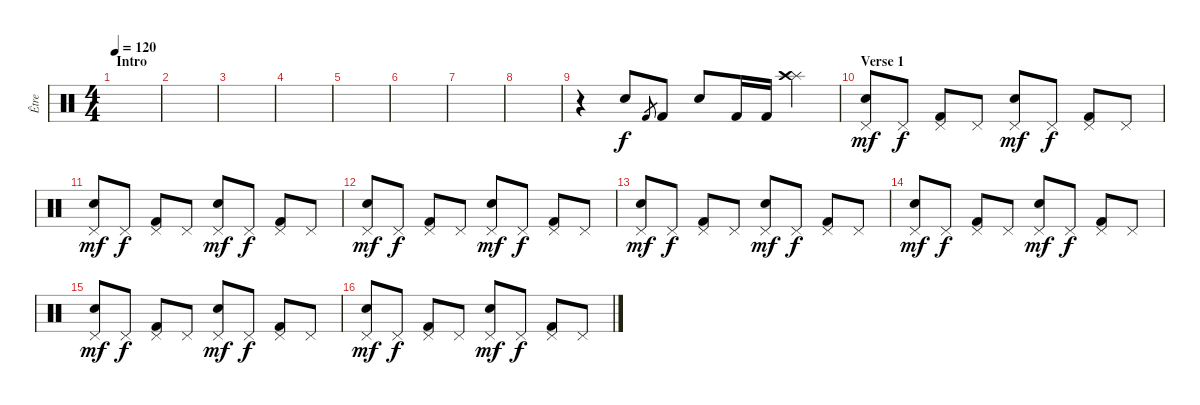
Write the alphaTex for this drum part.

\track ("Être" "Être") {instrument percussion}
\staff {score}
\articulation defaults
\ts (4 4)
\section ("" "Intro")
\tempo 120
\clef neutral
\ks c
|
|
|
|
|
|
|
|
r.4 "Electric Snare (hit)".8 "Kick (hit) 2".8{gr} "Kick (hit) 2".8 "Electric Snare (hit)".8 "Kick (hit) 2".16 "Kick (hit) 2".16 ("Splash (hit)" "Crash high (hit)").4 |
\section ("" "Verse 1")
("Pedal Hi-Hat (hit)" "Electric Snare (hit)").8{dy mf} "Pedal Hi-Hat (hit)".8{dy f} ("Kick (hit) 2" "Pedal Hi-Hat (hit)").8 "Pedal Hi-Hat (hit)".8 ("Pedal Hi-Hat (hit)" "Electric Snare (hit)").8{dy mf} "Pedal Hi-Hat (hit)".8{dy f} ("Kick (hit) 2" "Pedal Hi-Hat (hit)").8 "Pedal Hi-Hat (hit)".8 |
("Pedal Hi-Hat (hit)" "Electric Snare (hit)").8{dy mf} "Pedal Hi-Hat (hit)".8{dy f} ("Kick (hit) 2" "Pedal Hi-Hat (hit)").8 "Pedal Hi-Hat (hit)".8 ("Pedal Hi-Hat (hit)" "Electric Snare (hit)").8{dy mf} "Pedal Hi-Hat (hit)".8{dy f} ("Kick (hit) 2" "Pedal Hi-Hat (hit)").8 "Pedal Hi-Hat (hit)".8 |
("Pedal Hi-Hat (hit)" "Electric Snare (hit)").8{dy mf} "Pedal Hi-Hat (hit)".8{dy f} ("Kick (hit) 2" "Pedal Hi-Hat (hit)").8 "Pedal Hi-Hat (hit)".8 ("Pedal Hi-Hat (hit)" "Electric Snare (hit)").8{dy mf} "Pedal Hi-Hat (hit)".8{dy f} ("Kick (hit) 2" "Pedal Hi-Hat (hit)").8 "Pedal Hi-Hat (hit)".8 |
("Pedal Hi-Hat (hit)" "Electric Snare (hit)").8{dy mf} "Pedal Hi-Hat (hit)".8{dy f} ("Kick (hit) 2" "Pedal Hi-Hat (hit)").8 "Pedal Hi-Hat (hit)".8 ("Pedal Hi-Hat (hit)" "Electric Snare (hit)").8{dy mf} "Pedal Hi-Hat (hit)".8{dy f} ("Kick (hit) 2" "Pedal Hi-Hat (hit)").8 "Pedal Hi-Hat (hit)".8 |
("Pedal Hi-Hat (hit)" "Electric Snare (hit)").8{dy mf} "Pedal Hi-Hat (hit)".8{dy f} ("Kick (hit) 2" "Pedal Hi-Hat (hit)").8 "Pedal Hi-Hat (hit)".8 ("Pedal Hi-Hat (hit)" "Electric Snare (hit)").8{dy mf} "Pedal Hi-Hat (hit)".8{dy f} ("Kick (hit) 2" "Pedal Hi-Hat (hit)").8 "Pedal Hi-Hat (hit)".8 |
("Pedal Hi-Hat (hit)" "Electric Snare (hit)").8{dy mf} "Pedal Hi-Hat (hit)".8{dy f} ("Kick (hit) 2" "Pedal Hi-Hat (hit)").8 "Pedal Hi-Hat (hit)".8 ("Pedal Hi-Hat (hit)" "Electric Snare (hit)").8{dy mf} "Pedal Hi-Hat (hit)".8{dy f} ("Kick (hit) 2" "Pedal Hi-Hat (hit)").8 "Pedal Hi-Hat (hit)".8 |
("Pedal Hi-Hat (hit)" "Electric Snare (hit)").8{dy mf} "Pedal Hi-Hat (hit)".8{dy f} ("Kick (hit) 2" "Pedal Hi-Hat (hit)").8 "Pedal Hi-Hat (hit)".8 ("Pedal Hi-Hat (hit)" "Electric Snare (hit)").8{dy mf} "Pedal Hi-Hat (hit)".8{dy f} ("Kick (hit) 2" "Pedal Hi-Hat (hit)").8 "Pedal Hi-Hat (hit)".8
